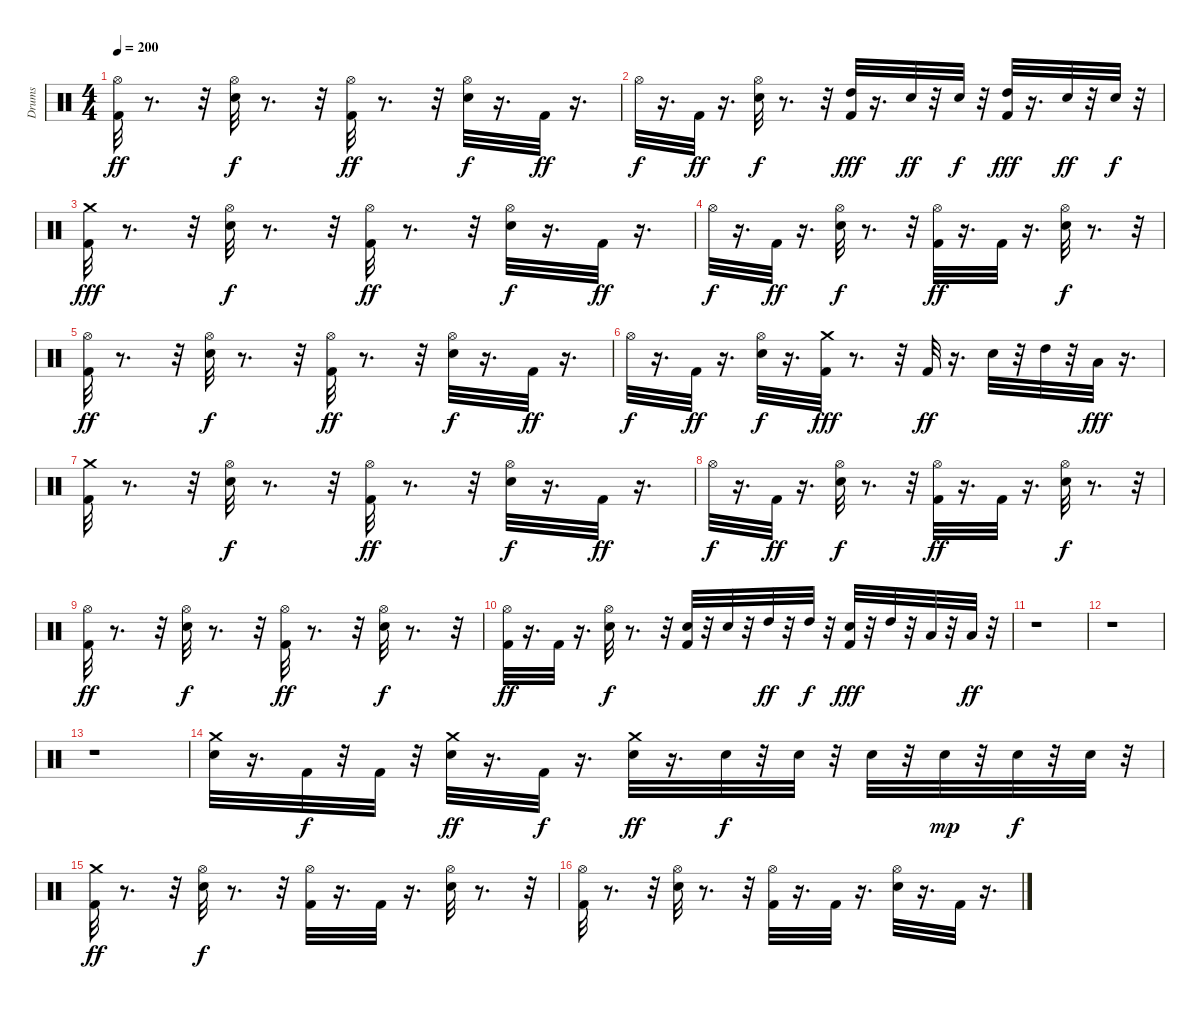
\track ("Drums" "Drums") {instrument percussion}
\staff {score}
\articulation defaults
\ts (4 4)
\tempo 200
\clef neutral
\ks c
("Hi-Hat (open)" "Kick (hit) 2").32{dy ff} r.8{d} r.32 ("Hi-Hat (open)" "Snare (hit) 2").32{dy f} r.8{d} r.32 ("Hi-Hat (open)" "Kick (hit) 2").32{dy ff} r.8{d} r.32 ("Hi-Hat (open)" "Snare (hit) 2").32{dy f} r.16{d} "Kick (hit) 2".32{dy ff} r.16{d} |
"Hi-Hat (open)".32{dy f} r.16{d} "Kick (hit) 2".32{dy ff} r.16{d} ("Hi-Hat (open)" "Snare (hit) 2").32{dy f} r.8{d} r.32 ("High Tom (hit)" "Kick (hit) 2").32{dy fff} r.16{d} "Snare (hit) 2".32{dy ff} r.32 "Snare (hit) 2".32{dy f} r.32 ("High Tom (hit)" "Kick (hit) 2").32{dy fff} r.16{d} "Snare (hit) 2".32{dy ff} r.32 "Snare (hit) 2".32{dy f} r.32 |
("Crash medium (hit)" "Kick (hit) 2").32{dy fff} r.8{d} r.32 ("Hi-Hat (open)" "Snare (hit) 2").32{dy f} r.8{d} r.32 ("Hi-Hat (open)" "Kick (hit) 2").32{dy ff} r.8{d} r.32 ("Hi-Hat (open)" "Snare (hit) 2").32{dy f} r.16{d} "Kick (hit) 2".32{dy ff} r.16{d} |
"Hi-Hat (open)".32{dy f} r.16{d} "Kick (hit) 2".32{dy ff} r.16{d} ("Hi-Hat (open)" "Snare (hit) 2").32{dy f} r.8{d} r.32 ("Hi-Hat (open)" "Kick (hit) 2").32{dy ff} r.16{d} "Kick (hit) 2".32 r.16{d} ("Hi-Hat (open)" "Snare (hit) 2").32{dy f} r.8{d} r.32 |
("Hi-Hat (open)" "Kick (hit) 2").32{dy ff} r.8{d} r.32 ("Hi-Hat (open)" "Snare (hit) 2").32{dy f} r.8{d} r.32 ("Hi-Hat (open)" "Kick (hit) 2").32{dy ff} r.8{d} r.32 ("Hi-Hat (open)" "Snare (hit) 2").32{dy f} r.16{d} "Kick (hit) 2".32{dy ff} r.16{d} |
"Hi-Hat (open)".32{dy f} r.16{d} "Kick (hit) 2".32{dy ff} r.16{d} ("Hi-Hat (open)" "Snare (hit) 2").32{dy f} r.16{d} ("Crash medium (hit)" "Kick (hit) 2").32{dy fff} r.8{d} r.32 "Kick (hit) 2".32{dy ff} r.16{d} "Snare (hit) 2".32 r.32 "High Tom (hit)".32 r.32 "Low Floor Tom (hit)".32{dy fff} r.16{d} |
("Crash medium (hit)" "Kick (hit) 2").32 r.8{d} r.32 ("Hi-Hat (open)" "Snare (hit) 2").32{dy f} r.8{d} r.32 ("Hi-Hat (open)" "Kick (hit) 2").32{dy ff} r.8{d} r.32 ("Hi-Hat (open)" "Snare (hit) 2").32{dy f} r.16{d} "Kick (hit) 2".32{dy ff} r.16{d} |
"Hi-Hat (open)".32{dy f} r.16{d} "Kick (hit) 2".32{dy ff} r.16{d} ("Hi-Hat (open)" "Snare (hit) 2").32{dy f} r.8{d} r.32 ("Hi-Hat (open)" "Kick (hit) 2").32{dy ff} r.16{d} "Kick (hit) 2".32 r.16{d} ("Hi-Hat (open)" "Snare (hit) 2").32{dy f} r.8{d} r.32 |
("Hi-Hat (open)" "Kick (hit) 2").32{dy ff} r.8{d} r.32 ("Hi-Hat (open)" "Snare (hit) 2").32{dy f} r.8{d} r.32 ("Hi-Hat (open)" "Kick (hit) 2").32{dy ff} r.8{d} r.32 ("Hi-Hat (open)" "Snare (hit) 2").32{dy f} r.8{d} r.32 |
("Kick (hit) 2" "Hi-Hat (open)").32{dy ff} r.16{d} "Kick (hit) 2".32 r.16{d} ("Hi-Hat (open)" "Snare (hit) 2").32{dy f} r.8{d} r.32 ("Snare (hit) 2" "Kick (hit) 2").32 r.32 "Snare (hit) 2".32 r.32 "High Tom (hit)".32{dy ff} r.32 "High Tom (hit)".32{dy f} r.32 ("Snare (hit) 2" "Kick (hit) 2").32{dy fff} r.32 "High Tom (hit)".32 r.32 "Low Floor Tom (hit)".32 r.32 "Low Floor Tom (hit)".32{dy ff} r.32 |
r.1 |
r.1 |
r.1 |
("Crash medium (hit)" "Snare (hit) 2").32 r.16{d} "Kick (hit) 2".32{dy f} r.32 "Kick (hit) 2".32 r.32 ("Crash medium (hit)" "Snare (hit) 2").32{dy ff} r.16{d} "Kick (hit) 2".32{dy f} r.16{d} ("Crash medium (hit)" "Snare (hit) 2").32{dy ff} r.16{d} "Snare (hit) 2".32{dy f} r.32 "Snare (hit) 2".32 r.32 "Snare (hit) 2".32 r.32 "Snare (hit) 2".32{dy mp} r.32 "Snare (hit) 2".32{dy f} r.32 "Snare (hit) 2".32 r.32 |
("Crash medium (hit)" "Kick (hit) 2").32{dy ff} r.8{d} r.32 ("Hi-Hat (open)" "Snare (hit) 2").32{dy f} r.8{d} r.32 ("Hi-Hat (open)" "Kick (hit) 2").32 r.16{d} "Kick (hit) 2".32 r.16{d} ("Hi-Hat (open)" "Snare (hit) 2").32 r.8{d} r.32 |
("Hi-Hat (open)" "Kick (hit) 2").32 r.8{d} r.32 ("Hi-Hat (open)" "Snare (hit) 2").32 r.8{d} r.32 ("Hi-Hat (open)" "Kick (hit) 2").32 r.16{d} "Kick (hit) 2".32 r.16{d} ("Snare (hit) 2" "Hi-Hat (open)").32 r.16{d} "Kick (hit) 2".32 r.16{d}
